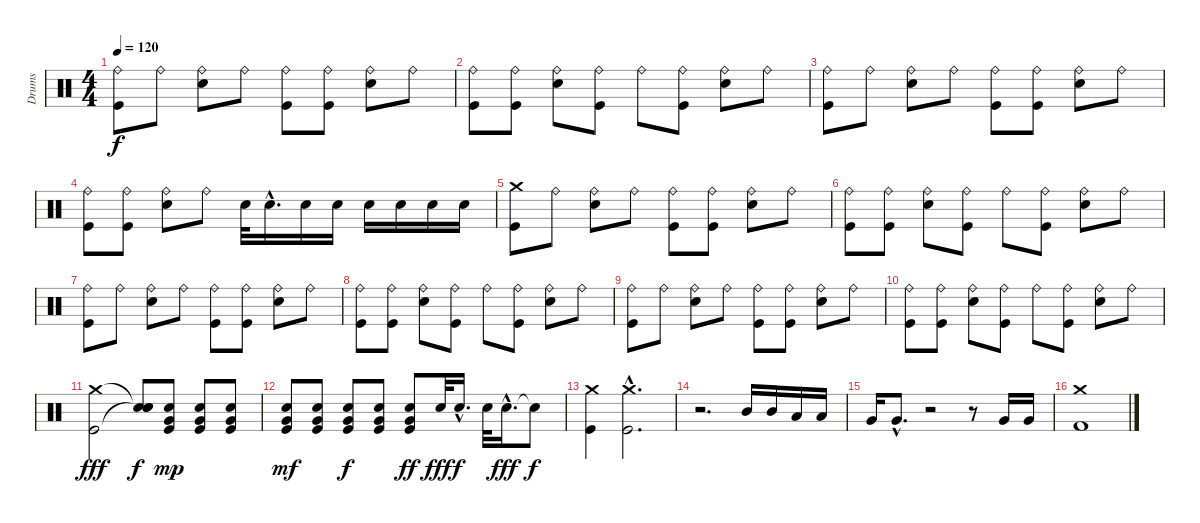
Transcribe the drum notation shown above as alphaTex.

\track ("Drums" "Drums") {instrument percussion}
\staff {score}
\articulation defaults
\ts (4 4)
\tempo 120
\clef neutral
\ks c
("Ride (bell)" "Kick (hit)").8{dy f} "Ride (bell)".8 ("Ride (bell)" "Snare (hit) 2").8 "Ride (bell)".8 ("Ride (bell)" "Kick (hit)").8 ("Ride (bell)" "Kick (hit)").8 ("Ride (bell)" "Snare (hit) 2").8 "Ride (bell)".8 |
("Ride (bell)" "Kick (hit)").8 ("Ride (bell)" "Kick (hit)").8 ("Ride (bell)" "Snare (hit) 2").8 ("Ride (bell)" "Kick (hit)").8 "Ride (bell)".8 ("Ride (bell)" "Kick (hit)").8 ("Ride (bell)" "Snare (hit) 2").8 "Ride (bell)".8 |
("Ride (bell)" "Kick (hit)").8 "Ride (bell)".8 ("Ride (bell)" "Snare (hit) 2").8 "Ride (bell)".8 ("Ride (bell)" "Kick (hit)").8 ("Ride (bell)" "Kick (hit)").8 ("Ride (bell)" "Snare (hit) 2").8 "Ride (bell)".8 |
("Ride (bell)" "Kick (hit)").8 ("Ride (bell)" "Kick (hit)").8 ("Ride (bell)" "Snare (hit) 2").8 "Ride (bell)".8 "Snare (hit) 2".32 "Snare (hit) 2"{hac}.16{d} "Snare (hit) 2".16 "Snare (hit) 2".16 "Snare (hit) 2".16 "Snare (hit) 2".16 "Snare (hit) 2".16 "Snare (hit) 2".16 |
("Crash medium (hit)" "Kick (hit)").8 "Ride (bell)".8 ("Ride (bell)" "Snare (hit) 2").8 "Ride (bell)".8 ("Ride (bell)" "Kick (hit)").8 ("Ride (bell)" "Kick (hit)").8 ("Ride (bell)" "Snare (hit) 2").8 "Ride (bell)".8 |
("Ride (bell)" "Kick (hit)").8 ("Ride (bell)" "Kick (hit)").8 ("Ride (bell)" "Snare (hit) 2").8 ("Ride (bell)" "Kick (hit)").8 "Ride (bell)".8 ("Ride (bell)" "Kick (hit)").8 ("Ride (bell)" "Snare (hit) 2").8 "Ride (bell)".8 |
("Ride (bell)" "Kick (hit)").8 "Ride (bell)".8 ("Ride (bell)" "Snare (hit) 2").8 "Ride (bell)".8 ("Ride (bell)" "Kick (hit)").8 ("Ride (bell)" "Kick (hit)").8 ("Ride (bell)" "Snare (hit) 2").8 "Ride (bell)".8 |
("Ride (bell)" "Kick (hit)").8 ("Ride (bell)" "Kick (hit)").8 ("Ride (bell)" "Snare (hit) 2").8 ("Ride (bell)" "Kick (hit)").8 "Ride (bell)".8 ("Ride (bell)" "Kick (hit)").8 ("Ride (bell)" "Snare (hit) 2").8 "Ride (bell)".8 |
("Ride (bell)" "Kick (hit)").8 "Ride (bell)".8 ("Ride (bell)" "Snare (hit) 2").8 "Ride (bell)".8 ("Ride (bell)" "Kick (hit)").8 ("Ride (bell)" "Kick (hit)").8 ("Ride (bell)" "Snare (hit) 2").8 "Ride (bell)".8 |
("Ride (bell)" "Kick (hit)").8 ("Ride (bell)" "Kick (hit)").8 ("Ride (bell)" "Snare (hit) 2").8 ("Ride (bell)" "Kick (hit)").8 "Ride (bell)".8 ("Ride (bell)" "Kick (hit)").8 ("Ride (bell)" "Snare (hit) 2").8 "Ride (bell)".8 |
("Crash medium (hit)" "Kick (hit)").2{dy fff} ("Snare (hit)"{t} "Snare (hit)"{t} "Snare (hit)").8{dy f} ("Snare (hit) 2" "Very Low Tom (hit)" "Kick (hit)").8{dy mp} ("Snare (hit) 2" "Very Low Tom (hit)" "Kick (hit)").8 ("Snare (hit) 2" "Very Low Tom (hit)" "Kick (hit)").8 |
("Snare (hit) 2" "Very Low Tom (hit)" "Kick (hit)").8{dy mf} ("Snare (hit) 2" "Very Low Tom (hit)" "Kick (hit)").8 ("Snare (hit) 2" "Very Low Tom (hit)" "Kick (hit)").8{dy f} ("Snare (hit) 2" "Very Low Tom (hit)" "Kick (hit)").8 ("Snare (hit) 2" "Very Low Tom (hit)" "Kick (hit)").8{dy ff} "Snare (hit) 2".32{dy fff} "Snare (hit) 2"{hac}.16{d dy f} "Snare (hit) 2".32 "Snare (hit) 2"{hac}.16{d dy fff} "Snare (hit)"{t}.8{dy f} |
("Crash medium (hit)" "Kick (hit)").4 ("Crash medium (hit)"{hac} "Kick (hit)"{hac}).2{d} |
r.2{d} "Mid Tom (hit)".16 "Mid Tom (hit)".16 "Low Tom (hit)".16 "Low Tom (hit)".16 |
"Very Low Tom (hit)".16 "Very Low Tom (hit)"{hac}.8{d} r.2 r.8 "Very Low Tom (hit)".16 "Very Low Tom (hit)".16 |
("Crash medium (hit)" "Kick (hit) 2").1
